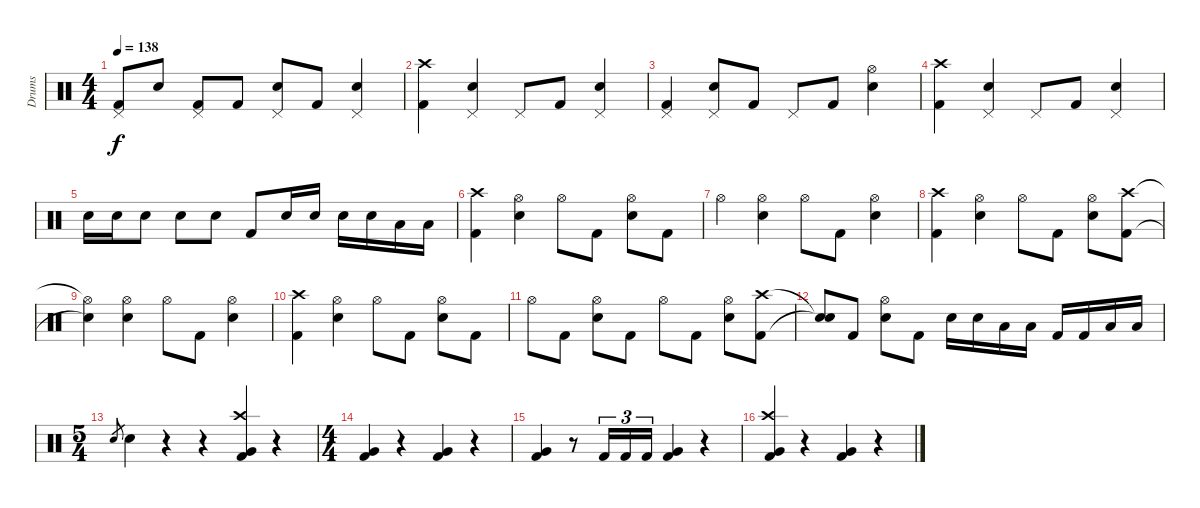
\track ("Drums" "Drums") {instrument percussion}
\staff {score}
\articulation defaults
\ts (4 4)
\tempo 138
\clef neutral
\ks c
("Pedal Hi-Hat (hit)" "Kick (hit) 2").8{dy f} "Electric Snare (hit)".8 ("Pedal Hi-Hat (hit)" "Kick (hit) 2").8 "Kick (hit) 2".8 ("Pedal Hi-Hat (hit)" "Electric Snare (hit)").8 "Kick (hit) 2".8 ("Pedal Hi-Hat (hit)" "Electric Snare (hit)").4 |
("Crash high (hit)" "Kick (hit) 2").4 ("Pedal Hi-Hat (hit)" "Electric Snare (hit)").4 "Pedal Hi-Hat (hit)".8 "Kick (hit) 2".8 ("Pedal Hi-Hat (hit)" "Electric Snare (hit)").4 |
("Pedal Hi-Hat (hit)" "Kick (hit) 2").4 ("Pedal Hi-Hat (hit)" "Electric Snare (hit)").8 "Kick (hit) 2".8 "Pedal Hi-Hat (hit)".8 "Kick (hit) 2".8 ("Hi-Hat (open)" "Electric Snare (hit)").4 |
("Crash high (hit)" "Kick (hit) 2").4 ("Pedal Hi-Hat (hit)" "Electric Snare (hit)").4 "Pedal Hi-Hat (hit)".8 "Kick (hit) 2".8 ("Pedal Hi-Hat (hit)" "Electric Snare (hit)").4 |
"Electric Snare (hit)".16 "Electric Snare (hit)".16 "Electric Snare (hit)".8 "Electric Snare (hit)".8 "Electric Snare (hit)".8 "Kick (hit) 2".8 "Electric Snare (hit)".16 "Electric Snare (hit)".16 "Electric Snare (hit)".16 "Electric Snare (hit)".16 "Low Tom (hit)".16 "Low Tom (hit)".16 |
("Crash high (hit)" "Kick (hit) 2").4 ("Hi-Hat (open)" "Electric Snare (hit)").4 "Hi-Hat (open)".8 "Kick (hit) 2".8 ("Hi-Hat (open)" "Electric Snare (hit)").8 "Kick (hit) 2".8 |
"Hi-Hat (open)".4 ("Hi-Hat (open)" "Electric Snare (hit)").4 "Hi-Hat (open)".8 "Kick (hit) 2".8 ("Hi-Hat (open)" "Electric Snare (hit)").4 |
("Crash high (hit)" "Kick (hit) 2").4 ("Hi-Hat (open)" "Electric Snare (hit)").4 "Hi-Hat (open)".8 "Kick (hit) 2".8 ("Hi-Hat (open)" "Electric Snare (hit)").8 ("Crash high (hit)" "Kick (hit) 2").8 |
("Hi-Hat (open)"{t} "Snare (hit)"{t}).4 ("Hi-Hat (open)" "Electric Snare (hit)").4 "Hi-Hat (open)".8 "Kick (hit) 2".8 ("Hi-Hat (open)" "Electric Snare (hit)").4 |
("Crash high (hit)" "Kick (hit) 2").4 ("Hi-Hat (open)" "Electric Snare (hit)").4 "Hi-Hat (open)".8 "Kick (hit) 2".8 ("Hi-Hat (open)" "Electric Snare (hit)").8 "Kick (hit) 2".8 |
"Hi-Hat (open)".8 "Kick (hit) 2".8 ("Hi-Hat (open)" "Electric Snare (hit)").8 "Kick (hit) 2".8 "Hi-Hat (open)".8 "Kick (hit) 2".8 ("Hi-Hat (open)" "Electric Snare (hit)").8 ("Crash high (hit)" "Kick (hit) 2").8 |
("Snare (hit)"{t} "Snare (hit)"{t}).8 "Kick (hit) 2".8 ("Hi-Hat (open)" "Electric Snare (hit)").8 "Kick (hit) 2".8 "Electric Snare (hit)".16 "Electric Snare (hit)".16 "Low Tom (hit)".16 "Low Tom (hit)".16 "Kick (hit) 2".16 "Kick (hit) 2".16 "Low Tom (hit)".16 "Low Tom (hit)".16 |
\ts (5 4)
"Electric Snare (hit)".8{gr} "Electric Snare (hit)".4 r.4 r.4 ("Crash high (hit)" "Very Low Tom (hit)" "Kick (hit) 2").4 r.4 |
\ts (4 4)
("Very Low Tom (hit)" "Kick (hit) 2").4 r.4 ("Very Low Tom (hit)" "Kick (hit) 2").4 r.4 |
("Very Low Tom (hit)" "Kick (hit) 2").4 r.8 "Kick (hit) 2".16{tu (3 2)} "Kick (hit) 2".16{tu (3 2)} "Kick (hit) 2".16{tu (3 2)} ("Very Low Tom (hit)" "Kick (hit) 2").4 r.4 |
("Crash high (hit)" "Very Low Tom (hit)" "Kick (hit) 2").4 r.4 ("Very Low Tom (hit)" "Kick (hit) 2").4 r.4
